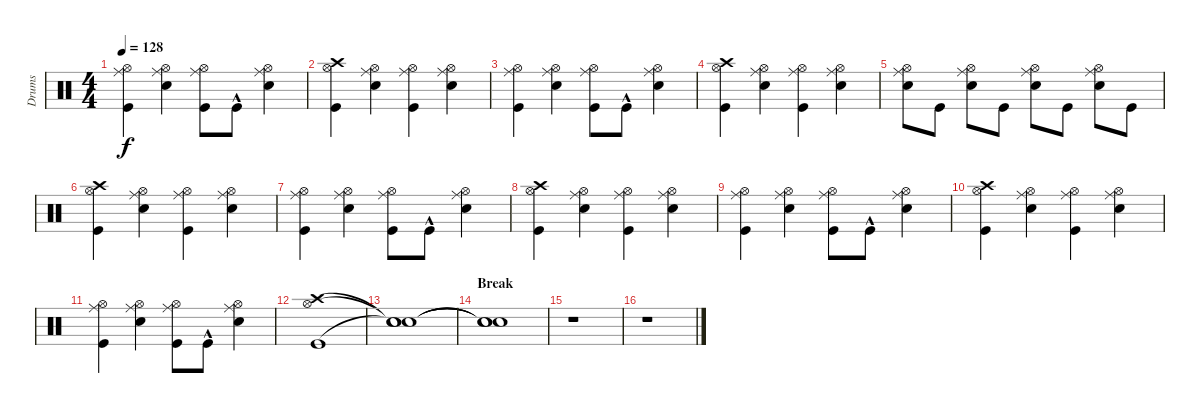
\track ("Drums" "Drums") {instrument percussion}
\staff {score}
\articulation defaults
\ts (4 4)
\tempo 128
\clef neutral
\ks c
("Kick (hit)" "Hi-Hat (open)" "Ride (middle)").4{dy f} ("Snare (hit) 2" "Hi-Hat (open)" "Ride (middle)").4 ("Kick (hit)" "Hi-Hat (open)" "Ride (middle)").8 "Kick (hit)"{hac}.8 ("Snare (hit) 2" "Hi-Hat (open)" "Ride (middle)").4 |
("Kick (hit)" "Hi-Hat (open)" "Crash high (hit)").4 ("Snare (hit) 2" "Hi-Hat (open)" "Ride (middle)").4 ("Kick (hit)" "Hi-Hat (open)" "Ride (middle)").4 ("Snare (hit) 2" "Hi-Hat (open)" "Ride (middle)").4 |
("Kick (hit)" "Hi-Hat (open)" "Ride (middle)").4 ("Snare (hit) 2" "Hi-Hat (open)" "Ride (middle)").4 ("Kick (hit)" "Hi-Hat (open)" "Ride (middle)").8 "Kick (hit)"{hac}.8 ("Snare (hit) 2" "Hi-Hat (open)" "Ride (middle)").4 |
("Kick (hit)" "Hi-Hat (open)" "Crash high (hit)").4 ("Snare (hit) 2" "Hi-Hat (open)" "Ride (middle)").4 ("Kick (hit)" "Hi-Hat (open)" "Ride (middle)").4 ("Snare (hit) 2" "Hi-Hat (open)" "Ride (middle)").4 |
("Snare (hit) 2" "Hi-Hat (open)" "Ride (middle)").8 "Kick (hit)".8 ("Snare (hit) 2" "Hi-Hat (open)" "Ride (middle)").8 "Kick (hit)".8 ("Snare (hit) 2" "Hi-Hat (open)" "Ride (middle)").8 "Kick (hit)".8 ("Snare (hit) 2" "Hi-Hat (open)" "Ride (middle)").8 "Kick (hit)".8 |
("Kick (hit)" "Hi-Hat (open)" "Crash high (hit)").4 ("Snare (hit) 2" "Hi-Hat (open)" "Ride (middle)").4 ("Kick (hit)" "Hi-Hat (open)" "Ride (middle)").4 ("Snare (hit) 2" "Hi-Hat (open)" "Ride (middle)").4 |
("Kick (hit)" "Hi-Hat (open)" "Ride (middle)").4 ("Snare (hit) 2" "Hi-Hat (open)" "Ride (middle)").4 ("Kick (hit)" "Hi-Hat (open)" "Ride (middle)").8 "Kick (hit)"{hac}.8 ("Snare (hit) 2" "Hi-Hat (open)" "Ride (middle)").4 |
("Kick (hit)" "Hi-Hat (open)" "Crash high (hit)").4 ("Snare (hit) 2" "Hi-Hat (open)" "Ride (middle)").4 ("Kick (hit)" "Hi-Hat (open)" "Ride (middle)").4 ("Snare (hit) 2" "Hi-Hat (open)" "Ride (middle)").4 |
("Kick (hit)" "Hi-Hat (open)" "Ride (middle)").4 ("Snare (hit) 2" "Hi-Hat (open)" "Ride (middle)").4 ("Kick (hit)" "Hi-Hat (open)" "Ride (middle)").8 "Kick (hit)"{hac}.8 ("Snare (hit) 2" "Hi-Hat (open)" "Ride (middle)").4 |
("Kick (hit)" "Hi-Hat (open)" "Crash high (hit)").4 ("Snare (hit) 2" "Hi-Hat (open)" "Ride (middle)").4 ("Kick (hit)" "Hi-Hat (open)" "Ride (middle)").4 ("Snare (hit) 2" "Hi-Hat (open)" "Ride (middle)").4 |
("Kick (hit)" "Hi-Hat (open)" "Ride (middle)").4 ("Snare (hit) 2" "Hi-Hat (open)" "Ride (middle)").4 ("Kick (hit)" "Hi-Hat (open)" "Ride (middle)").8 "Kick (hit)"{hac}.8 ("Snare (hit) 2" "Hi-Hat (open)" "Ride (middle)").4 |
("Kick (hit)" "Hi-Hat (open)" "Crash high (hit)").1 |
("Snare (hit)"{t} "Snare (hit)"{t} "Snare (hit)"{t}).1 |
\section ("" "Break")
("Snare (hit)"{t} "Snare (hit)"{t} "Snare (hit)"{t}).1 |
r.1 |
r.1
